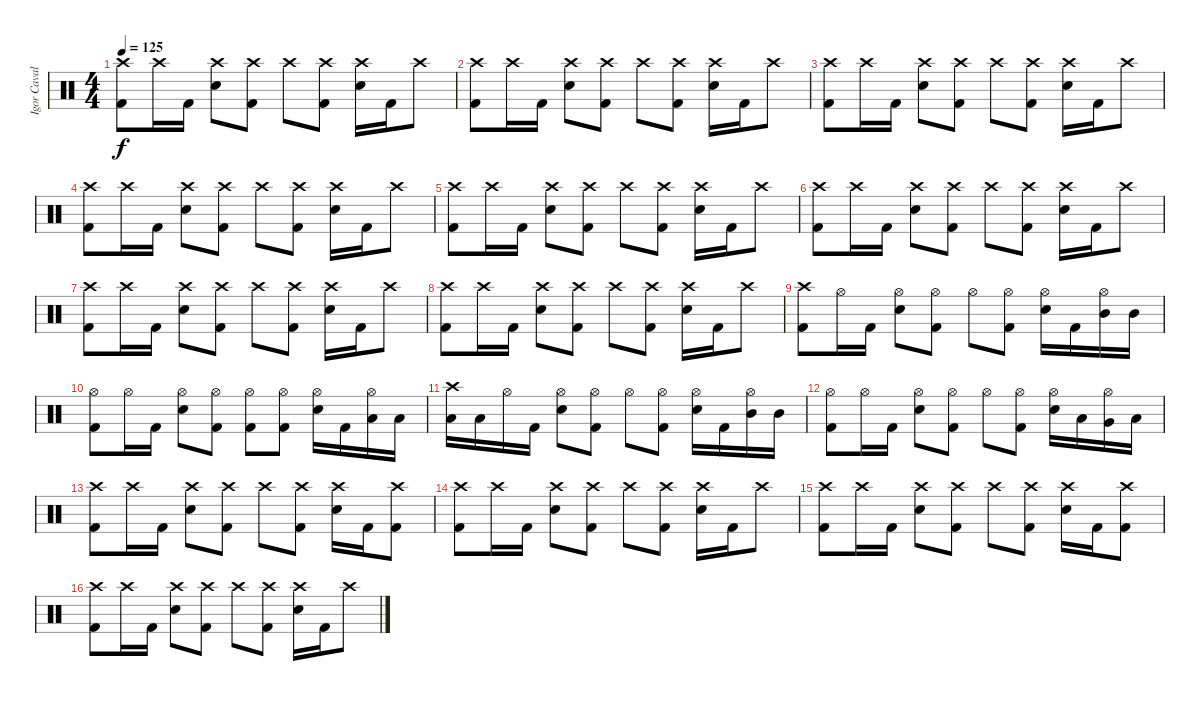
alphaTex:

\track ("Igor Cavalera" "Igor Caval") {instrument percussion}
\staff {score}
\articulation defaults
\ts (4 4)
\tempo 125
\clef neutral
\ks c
("Crash high (hit)" "Kick (hit) 2").8{dy f} "Crash high (hit)".16 "Kick (hit) 2".16 ("Crash high (hit)" "Electric Snare (hit)").8 ("Crash high (hit)" "Kick (hit) 2").8 "Crash high (hit)".8 ("Crash high (hit)" "Kick (hit) 2").8 ("Crash high (hit)" "Electric Snare (hit)").16 "Kick (hit) 2".16 "Crash high (hit)".8 |
("Crash high (hit)" "Kick (hit) 2").8 "Crash high (hit)".16 "Kick (hit) 2".16 ("Crash high (hit)" "Electric Snare (hit)").8 ("Crash high (hit)" "Kick (hit) 2").8 "Crash high (hit)".8 ("Crash high (hit)" "Kick (hit) 2").8 ("Crash high (hit)" "Electric Snare (hit)").16 "Kick (hit) 2".16 "Crash high (hit)".8 |
("Crash high (hit)" "Kick (hit) 2").8 "Crash high (hit)".16 "Kick (hit) 2".16 ("Crash high (hit)" "Electric Snare (hit)").8 ("Crash high (hit)" "Kick (hit) 2").8 "Crash high (hit)".8 ("Crash high (hit)" "Kick (hit) 2").8 ("Crash high (hit)" "Electric Snare (hit)").16 "Kick (hit) 2".16 "Crash high (hit)".8 |
("Crash high (hit)" "Kick (hit) 2").8 "Crash high (hit)".16 "Kick (hit) 2".16 ("Crash high (hit)" "Electric Snare (hit)").8 ("Crash high (hit)" "Kick (hit) 2").8 "Crash high (hit)".8 ("Crash high (hit)" "Kick (hit) 2").8 ("Crash high (hit)" "Electric Snare (hit)").16 "Kick (hit) 2".16 "Crash high (hit)".8 |
("Crash high (hit)" "Kick (hit) 2").8 "Crash high (hit)".16 "Kick (hit) 2".16 ("Crash high (hit)" "Electric Snare (hit)").8 ("Crash high (hit)" "Kick (hit) 2").8 "Crash high (hit)".8 ("Crash high (hit)" "Kick (hit) 2").8 ("Crash high (hit)" "Electric Snare (hit)").16 "Kick (hit) 2".16 "Crash high (hit)".8 |
("Crash high (hit)" "Kick (hit) 2").8 "Crash high (hit)".16 "Kick (hit) 2".16 ("Crash high (hit)" "Electric Snare (hit)").8 ("Crash high (hit)" "Kick (hit) 2").8 "Crash high (hit)".8 ("Crash high (hit)" "Kick (hit) 2").8 ("Crash high (hit)" "Electric Snare (hit)").16 "Kick (hit) 2".16 "Crash high (hit)".8 |
("Crash high (hit)" "Kick (hit) 2").8 "Crash high (hit)".16 "Kick (hit) 2".16 ("Crash high (hit)" "Electric Snare (hit)").8 ("Crash high (hit)" "Kick (hit) 2").8 "Crash high (hit)".8 ("Crash high (hit)" "Kick (hit) 2").8 ("Crash high (hit)" "Electric Snare (hit)").16 "Kick (hit) 2".16 "Crash high (hit)".8 |
("Crash high (hit)" "Kick (hit) 2").8 "Crash high (hit)".16 "Kick (hit) 2".16 ("Crash high (hit)" "Electric Snare (hit)").8 ("Crash high (hit)" "Kick (hit) 2").8 "Crash high (hit)".8 ("Crash high (hit)" "Kick (hit) 2").8 ("Crash high (hit)" "Electric Snare (hit)").16 "Kick (hit) 2".16 "Crash high (hit)".8 |
("Crash high (hit)" "Kick (hit) 2").8 "Hi-Hat (open)".16 "Kick (hit) 2".16 ("Hi-Hat (open)" "Electric Snare (hit)").8 ("Hi-Hat (open)" "Kick (hit) 2").8 "Hi-Hat (open)".8 ("Hi-Hat (open)" "Kick (hit) 2").8 ("Hi-Hat (open)" "Electric Snare (hit)").16 "Kick (hit) 2".16 ("Hi-Hat (open)" "Mid Tom (hit)").16 "Mid Tom (hit)".16 |
("Hi-Hat (open)" "Kick (hit) 2").8 "Hi-Hat (open)".16 "Kick (hit) 2".16 ("Hi-Hat (open)" "Electric Snare (hit)").8 ("Hi-Hat (open)" "Kick (hit) 2").8 ("Hi-Hat (open)" "Kick (hit) 2").8 ("Hi-Hat (open)" "Kick (hit) 2").8 ("Hi-Hat (open)" "Electric Snare (hit)").16 "Kick (hit) 2".16 ("Hi-Hat (open)" "Low Tom (hit)").16 "Low Tom (hit)".16 |
("Crash high (hit)" "Low Tom (hit)").16 "Low Tom (hit)".16 "Hi-Hat (open)".16 "Kick (hit) 2".16 ("Hi-Hat (open)" "Electric Snare (hit)").8 ("Hi-Hat (open)" "Kick (hit) 2").8 "Hi-Hat (open)".8 ("Hi-Hat (open)" "Kick (hit) 2").8 ("Hi-Hat (open)" "Electric Snare (hit)").16 "Kick (hit) 2".16 ("Hi-Hat (open)" "Mid Tom (hit)").16 "Mid Tom (hit)".16 |
("Hi-Hat (open)" "Kick (hit) 2").8 "Hi-Hat (open)".16 "Kick (hit) 2".16 ("Hi-Hat (open)" "Electric Snare (hit)").8 ("Hi-Hat (open)" "Kick (hit) 2").8 "Hi-Hat (open)".8 ("Hi-Hat (open)" "Kick (hit) 2").8 ("Hi-Hat (open)" "Electric Snare (hit)").16 "Low Tom (hit)".16 ("Hi-Hat (open)" "Very Low Tom (hit)").16 "Low Floor Tom (hit)".16 |
("Crash high (hit)" "Kick (hit) 2").8 "Crash high (hit)".16 "Kick (hit) 2".16 ("Crash high (hit)" "Electric Snare (hit)").8 ("Crash high (hit)" "Kick (hit) 2").8 "Crash high (hit)".8 ("Crash high (hit)" "Kick (hit) 2").8 ("Crash high (hit)" "Electric Snare (hit)").16 "Kick (hit) 2".16 ("Crash high (hit)" "Kick (hit) 2").8 |
("Crash high (hit)" "Kick (hit) 2").8 "Crash high (hit)".16 "Kick (hit) 2".16 ("Crash high (hit)" "Electric Snare (hit)").8 ("Crash high (hit)" "Kick (hit) 2").8 "Crash high (hit)".8 ("Crash high (hit)" "Kick (hit) 2").8 ("Crash high (hit)" "Electric Snare (hit)").16 "Kick (hit) 2".16 "Crash high (hit)".8 |
("Crash high (hit)" "Kick (hit) 2").8 "Crash high (hit)".16 "Kick (hit) 2".16 ("Crash high (hit)" "Electric Snare (hit)").8 ("Crash high (hit)" "Kick (hit) 2").8 "Crash high (hit)".8 ("Crash high (hit)" "Kick (hit) 2").8 ("Crash high (hit)" "Electric Snare (hit)").16 "Kick (hit) 2".16 ("Crash high (hit)" "Kick (hit) 2").8 |
("Crash high (hit)" "Kick (hit) 2").8 "Crash high (hit)".16 "Kick (hit) 2".16 ("Crash high (hit)" "Electric Snare (hit)").8 ("Crash high (hit)" "Kick (hit) 2").8 "Crash high (hit)".8 ("Crash high (hit)" "Kick (hit) 2").8 ("Crash high (hit)" "Electric Snare (hit)").16 "Kick (hit) 2".16 "Crash high (hit)".8
